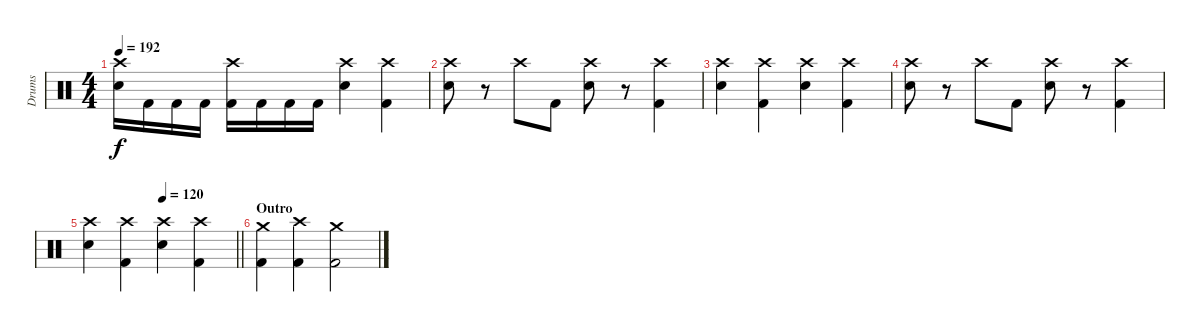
\track ("Drums" "Drums") {instrument percussion}
\staff {score}
\articulation defaults
\ts (4 4)
\tempo 192
\clef neutral
\ks c
("Crash high (hit)" "Snare (hit) 2").16{dy f} "Kick (hit) 2".16 "Kick (hit) 2".16 "Kick (hit) 2".16 ("Crash high (hit)" "Kick (hit) 2").16 "Kick (hit) 2".16 "Kick (hit) 2".16 "Kick (hit) 2".16 ("Crash high (hit)" "Snare (hit) 2").4 ("Crash high (hit)" "Kick (hit) 2").4 |
("Crash high (hit)" "Snare (hit) 2").8 r.8 "Crash high (hit)".8 "Kick (hit) 2".8 ("Crash high (hit)" "Snare (hit) 2").8 r.8 ("Crash high (hit)" "Kick (hit) 2").4 |
("Crash high (hit)" "Snare (hit) 2").4 ("Crash high (hit)" "Kick (hit) 2").4 ("Crash high (hit)" "Snare (hit) 2").4 ("Crash high (hit)" "Kick (hit) 2").4 |
("Crash high (hit)" "Snare (hit) 2").8 r.8 "Crash high (hit)".8 "Kick (hit) 2".8 ("Crash high (hit)" "Snare (hit) 2").8 r.8 ("Crash high (hit)" "Kick (hit) 2").4 |
\tempo (120 0.5)
\barLineRight lightlight
("Crash high (hit)" "Snare (hit) 2").4 ("Crash high (hit)" "Kick (hit) 2").4 ("Crash high (hit)" "Snare (hit) 2").4 ("Crash high (hit)" "Kick (hit) 2").4 |
\section ("" "Outro")
("Crash medium (hit)" "Kick (hit) 2").4 ("Crash high (hit)" "Kick (hit) 2").4 ("Crash medium (hit)" "Kick (hit) 2").2
